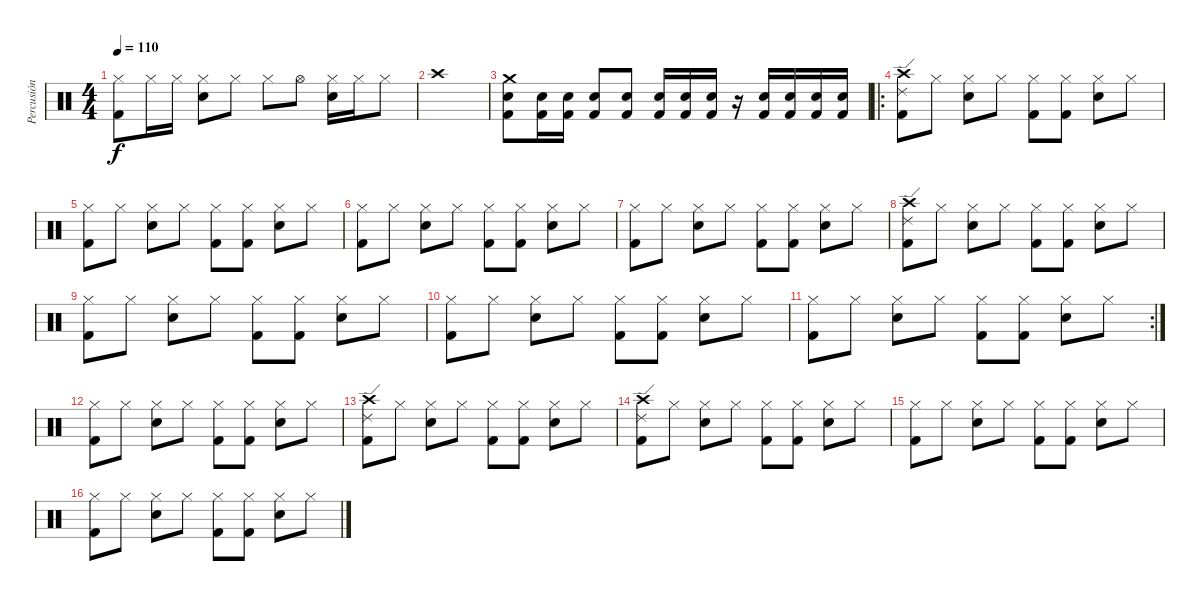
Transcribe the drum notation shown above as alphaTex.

\track ("Percusión" "Percusión") {instrument percussion}
\staff {score}
\articulation defaults
\ts (4 4)
\tempo 110
\clef neutral
\ks c
("Hi-Hat (closed)" "Kick (hit) 2").8{dy f} "Hi-Hat (closed)".16 "Hi-Hat (closed)".16 ("Hi-Hat (closed)" "Snare (hit) 2").8 "Hi-Hat (closed)".8 "Hi-Hat (closed)".8 "Hi-Hat (open)".8 ("Hi-Hat (closed)" "Snare (hit) 2").16 "Hi-Hat (closed)".16 "Hi-Hat (closed)".8 |
"Crash high (hit)".1 |
("Crash medium (hit)" "Snare (hit) 2" "Kick (hit) 2").8 ("Snare (hit) 2" "Kick (hit) 2").16 ("Snare (hit) 2" "Kick (hit) 2").16 ("Snare (hit) 2" "Kick (hit) 2").8 ("Snare (hit) 2" "Kick (hit) 2").8 ("Snare (hit) 2" "Kick (hit) 2").16 ("Snare (hit) 2" "Kick (hit) 2").16 ("Snare (hit) 2" "Kick (hit) 2").16 r.16 ("Snare (hit) 2" "Kick (hit) 2").16 ("Snare (hit) 2" "Kick (hit) 2").16 ("Snare (hit) 2" "Kick (hit) 2").16 ("Snare (hit) 2" "Kick (hit) 2").16 |
\ro
("Ride (edge) 2" "Kick (hit) 2" "Crash high (hit)").8 "Hi-Hat (closed)".8 ("Snare (hit) 2" "Hi-Hat (closed)").8 "Hi-Hat (closed)".8 ("Kick (hit) 2" "Hi-Hat (closed)").8 ("Kick (hit) 2" "Hi-Hat (closed)").8 ("Snare (hit) 2" "Hi-Hat (closed)").8 "Hi-Hat (closed)".8 |
("Kick (hit) 2" "Hi-Hat (closed)").8 "Hi-Hat (closed)".8 ("Snare (hit) 2" "Hi-Hat (closed)").8 "Hi-Hat (closed)".8 ("Kick (hit) 2" "Hi-Hat (closed)").8 ("Kick (hit) 2" "Hi-Hat (closed)").8 ("Snare (hit) 2" "Hi-Hat (closed)").8 "Hi-Hat (closed)".8 |
("Kick (hit) 2" "Hi-Hat (closed)").8 "Hi-Hat (closed)".8 ("Snare (hit) 2" "Hi-Hat (closed)").8 "Hi-Hat (closed)".8 ("Kick (hit) 2" "Hi-Hat (closed)").8 ("Kick (hit) 2" "Hi-Hat (closed)").8 ("Snare (hit) 2" "Hi-Hat (closed)").8 "Hi-Hat (closed)".8 |
("Kick (hit) 2" "Hi-Hat (closed)").8 "Hi-Hat (closed)".8 ("Snare (hit) 2" "Hi-Hat (closed)").8 "Hi-Hat (closed)".8 ("Kick (hit) 2" "Hi-Hat (closed)").8 ("Kick (hit) 2" "Hi-Hat (closed)").8 ("Snare (hit) 2" "Hi-Hat (closed)").8 "Hi-Hat (closed)".8 |
("Ride (edge) 2" "Kick (hit) 2" "Crash high (hit)").8 "Hi-Hat (closed)".8 ("Snare (hit) 2" "Hi-Hat (closed)").8 "Hi-Hat (closed)".8 ("Kick (hit) 2" "Hi-Hat (closed)").8 ("Kick (hit) 2" "Hi-Hat (closed)").8 ("Snare (hit) 2" "Hi-Hat (closed)").8 "Hi-Hat (closed)".8 |
("Kick (hit) 2" "Hi-Hat (closed)").8 "Hi-Hat (closed)".8 ("Snare (hit) 2" "Hi-Hat (closed)").8 "Hi-Hat (closed)".8 ("Kick (hit) 2" "Hi-Hat (closed)").8 ("Kick (hit) 2" "Hi-Hat (closed)").8 ("Snare (hit) 2" "Hi-Hat (closed)").8 "Hi-Hat (closed)".8 |
("Kick (hit) 2" "Hi-Hat (closed)").8 "Hi-Hat (closed)".8 ("Snare (hit) 2" "Hi-Hat (closed)").8 "Hi-Hat (closed)".8 ("Kick (hit) 2" "Hi-Hat (closed)").8 ("Kick (hit) 2" "Hi-Hat (closed)").8 ("Snare (hit) 2" "Hi-Hat (closed)").8 "Hi-Hat (closed)".8 |
\rc 2
("Kick (hit) 2" "Hi-Hat (closed)").8 "Hi-Hat (closed)".8 ("Snare (hit) 2" "Hi-Hat (closed)").8 "Hi-Hat (closed)".8 ("Kick (hit) 2" "Hi-Hat (closed)").8 ("Kick (hit) 2" "Hi-Hat (closed)").8 ("Snare (hit) 2" "Hi-Hat (closed)").8 "Hi-Hat (closed)".8 |
("Kick (hit) 2" "Hi-Hat (closed)").8 "Hi-Hat (closed)".8 ("Snare (hit) 2" "Hi-Hat (closed)").8 "Hi-Hat (closed)".8 ("Kick (hit) 2" "Hi-Hat (closed)").8 ("Kick (hit) 2" "Hi-Hat (closed)").8 ("Snare (hit) 2" "Hi-Hat (closed)").8 "Hi-Hat (closed)".8 |
("Ride (edge) 2" "Kick (hit) 2" "Crash high (hit)").8 "Hi-Hat (closed)".8 ("Snare (hit) 2" "Hi-Hat (closed)").8 "Hi-Hat (closed)".8 ("Kick (hit) 2" "Hi-Hat (closed)").8 ("Kick (hit) 2" "Hi-Hat (closed)").8 ("Snare (hit) 2" "Hi-Hat (closed)").8 "Hi-Hat (closed)".8 |
("Ride (edge) 2" "Kick (hit) 2" "Crash high (hit)").8 "Hi-Hat (closed)".8 ("Snare (hit) 2" "Hi-Hat (closed)").8 "Hi-Hat (closed)".8 ("Kick (hit) 2" "Hi-Hat (closed)").8 ("Kick (hit) 2" "Hi-Hat (closed)").8 ("Snare (hit) 2" "Hi-Hat (closed)").8 "Hi-Hat (closed)".8 |
("Kick (hit) 2" "Hi-Hat (closed)").8 "Hi-Hat (closed)".8 ("Snare (hit) 2" "Hi-Hat (closed)").8 "Hi-Hat (closed)".8 ("Kick (hit) 2" "Hi-Hat (closed)").8 ("Kick (hit) 2" "Hi-Hat (closed)").8 ("Snare (hit) 2" "Hi-Hat (closed)").8 "Hi-Hat (closed)".8 |
("Kick (hit) 2" "Hi-Hat (closed)").8 "Hi-Hat (closed)".8 ("Snare (hit) 2" "Hi-Hat (closed)").8 "Hi-Hat (closed)".8 ("Kick (hit) 2" "Hi-Hat (closed)").8 ("Kick (hit) 2" "Hi-Hat (closed)").8 ("Snare (hit) 2" "Hi-Hat (closed)").8 "Hi-Hat (closed)".8
